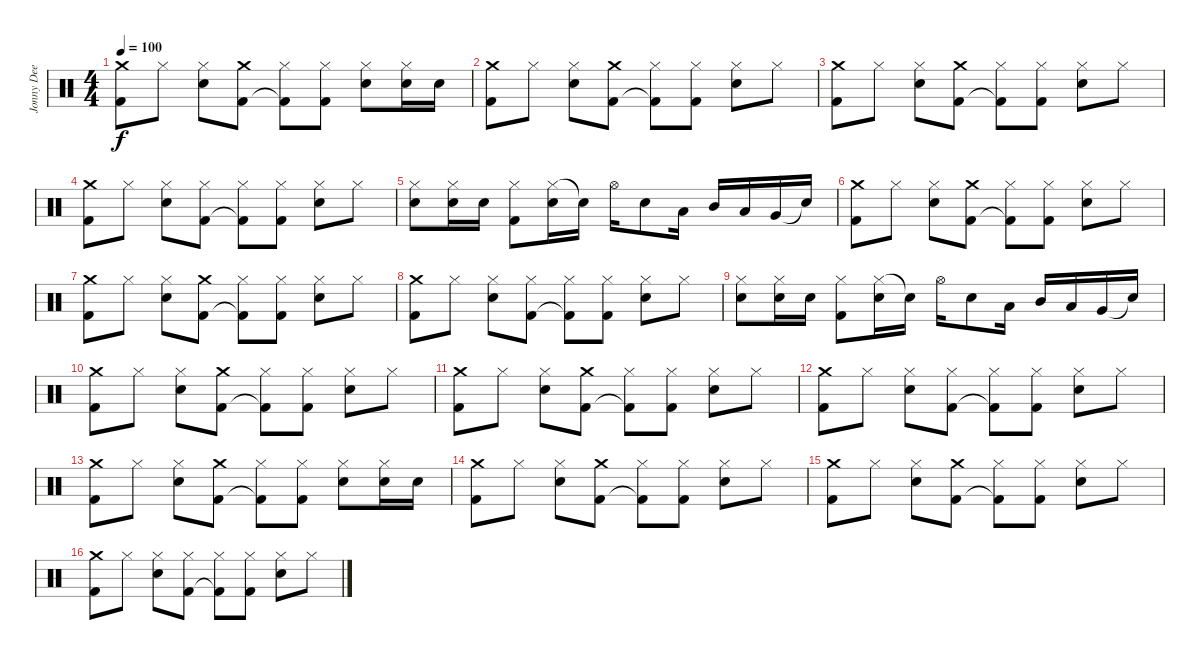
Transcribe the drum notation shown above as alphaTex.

\track ("Jonny Dee" "Jonny Dee") {instrument percussion}
\staff {score}
\articulation defaults
\ts (4 4)
\tempo 100
\clef neutral
\ks c
("Crash medium (hit)" "Kick (hit) 2").8{dy f} "Hi-Hat (closed)".8 ("Hi-Hat (closed)" "Snare (hit) 2").8 ("Crash medium (hit)" "Kick (hit) 2").8 ("Hi-Hat (closed)" "Kick (hit) 2"{t}).8 ("Hi-Hat (closed)" "Kick (hit) 2").8 ("Hi-Hat (closed)" "Snare (hit) 2").8 ("Hi-Hat (closed)" "Snare (hit) 2").16 "Snare (hit) 2".16 |
("Crash medium (hit)" "Kick (hit) 2").8 "Hi-Hat (closed)".8 ("Hi-Hat (closed)" "Snare (hit) 2").8 ("Crash medium (hit)" "Kick (hit) 2").8 ("Hi-Hat (closed)" "Kick (hit) 2"{t}).8 ("Hi-Hat (closed)" "Kick (hit) 2").8 ("Hi-Hat (closed)" "Snare (hit) 2").8 "Hi-Hat (closed)".8 |
("Crash medium (hit)" "Kick (hit) 2").8 "Hi-Hat (closed)".8 ("Hi-Hat (closed)" "Snare (hit) 2").8 ("Crash medium (hit)" "Kick (hit) 2").8 ("Hi-Hat (closed)" "Kick (hit) 2"{t}).8 ("Hi-Hat (closed)" "Kick (hit) 2").8 ("Hi-Hat (closed)" "Snare (hit) 2").8 "Hi-Hat (closed)".8 |
("Crash medium (hit)" "Kick (hit) 2").8 "Hi-Hat (closed)".8 ("Hi-Hat (closed)" "Snare (hit) 2").8 ("Hi-Hat (closed)" "Kick (hit) 2").8 ("Hi-Hat (closed)" "Kick (hit) 2"{t}).8 ("Hi-Hat (closed)" "Kick (hit) 2").8 ("Hi-Hat (closed)" "Snare (hit) 2").8 "Hi-Hat (closed)".8 |
("Hi-Hat (closed)" "Snare (hit) 2").8 ("Hi-Hat (closed)" "Snare (hit) 2").16 "Snare (hit) 2".16 ("Hi-Hat (closed)" "Kick (hit) 2").8 ("Hi-Hat (closed)" "Snare (hit) 2").16 "Snare (hit)"{t}.16 "Hi-Hat (open)".16 "Snare (hit) 2".8 "Low Tom (hit)".16 "Mid Tom (hit)".16 "Low Tom (hit)".16 "Very Low Tom (hit)".16 "Snare (hit)"{t}.16 |
("Crash medium (hit)" "Kick (hit) 2").8 "Hi-Hat (closed)".8 ("Hi-Hat (closed)" "Snare (hit) 2").8 ("Crash medium (hit)" "Kick (hit) 2").8 ("Hi-Hat (closed)" "Kick (hit) 2"{t}).8 ("Hi-Hat (closed)" "Kick (hit) 2").8 ("Hi-Hat (closed)" "Snare (hit) 2").8 "Hi-Hat (closed)".8 |
("Crash medium (hit)" "Kick (hit) 2").8 "Hi-Hat (closed)".8 ("Hi-Hat (closed)" "Snare (hit) 2").8 ("Crash medium (hit)" "Kick (hit) 2").8 ("Hi-Hat (closed)" "Kick (hit) 2"{t}).8 ("Hi-Hat (closed)" "Kick (hit) 2").8 ("Hi-Hat (closed)" "Snare (hit) 2").8 "Hi-Hat (closed)".8 |
("Crash medium (hit)" "Kick (hit) 2").8 "Hi-Hat (closed)".8 ("Hi-Hat (closed)" "Snare (hit) 2").8 ("Hi-Hat (closed)" "Kick (hit) 2").8 ("Hi-Hat (closed)" "Kick (hit) 2"{t}).8 ("Hi-Hat (closed)" "Kick (hit) 2").8 ("Hi-Hat (closed)" "Snare (hit) 2").8 "Hi-Hat (closed)".8 |
("Hi-Hat (closed)" "Snare (hit) 2").8 ("Hi-Hat (closed)" "Snare (hit) 2").16 "Snare (hit) 2".16 ("Hi-Hat (closed)" "Kick (hit) 2").8 ("Hi-Hat (closed)" "Snare (hit) 2").16 "Snare (hit)"{t}.16 "Hi-Hat (open)".16 "Snare (hit) 2".8 "Low Tom (hit)".16 "Mid Tom (hit)".16 "Low Tom (hit)".16 "Very Low Tom (hit)".16 "Snare (hit)"{t}.16 |
("Crash medium (hit)" "Kick (hit) 2").8 "Hi-Hat (closed)".8 ("Hi-Hat (closed)" "Snare (hit) 2").8 ("Crash medium (hit)" "Kick (hit) 2").8 ("Hi-Hat (closed)" "Kick (hit) 2"{t}).8 ("Hi-Hat (closed)" "Kick (hit) 2").8 ("Hi-Hat (closed)" "Snare (hit) 2").8 "Hi-Hat (closed)".8 |
("Crash medium (hit)" "Kick (hit) 2").8 "Hi-Hat (closed)".8 ("Hi-Hat (closed)" "Snare (hit) 2").8 ("Crash medium (hit)" "Kick (hit) 2").8 ("Hi-Hat (closed)" "Kick (hit) 2"{t}).8 ("Hi-Hat (closed)" "Kick (hit) 2").8 ("Hi-Hat (closed)" "Snare (hit) 2").8 "Hi-Hat (closed)".8 |
("Crash medium (hit)" "Kick (hit) 2").8 "Hi-Hat (closed)".8 ("Hi-Hat (closed)" "Snare (hit) 2").8 ("Hi-Hat (closed)" "Kick (hit) 2").8 ("Hi-Hat (closed)" "Kick (hit) 2"{t}).8 ("Hi-Hat (closed)" "Kick (hit) 2").8 ("Hi-Hat (closed)" "Snare (hit) 2").8 "Hi-Hat (closed)".8 |
("Crash medium (hit)" "Kick (hit) 2").8 "Hi-Hat (closed)".8 ("Hi-Hat (closed)" "Snare (hit) 2").8 ("Crash medium (hit)" "Kick (hit) 2").8 ("Hi-Hat (closed)" "Kick (hit) 2"{t}).8 ("Hi-Hat (closed)" "Kick (hit) 2").8 ("Hi-Hat (closed)" "Snare (hit) 2").8 ("Hi-Hat (closed)" "Snare (hit) 2").16 "Snare (hit) 2".16 |
("Crash medium (hit)" "Kick (hit) 2").8 "Hi-Hat (closed)".8 ("Hi-Hat (closed)" "Snare (hit) 2").8 ("Crash medium (hit)" "Kick (hit) 2").8 ("Hi-Hat (closed)" "Kick (hit) 2"{t}).8 ("Hi-Hat (closed)" "Kick (hit) 2").8 ("Hi-Hat (closed)" "Snare (hit) 2").8 "Hi-Hat (closed)".8 |
("Crash medium (hit)" "Kick (hit) 2").8 "Hi-Hat (closed)".8 ("Hi-Hat (closed)" "Snare (hit) 2").8 ("Crash medium (hit)" "Kick (hit) 2").8 ("Hi-Hat (closed)" "Kick (hit) 2"{t}).8 ("Hi-Hat (closed)" "Kick (hit) 2").8 ("Hi-Hat (closed)" "Snare (hit) 2").8 "Hi-Hat (closed)".8 |
("Crash medium (hit)" "Kick (hit) 2").8 "Hi-Hat (closed)".8 ("Hi-Hat (closed)" "Snare (hit) 2").8 ("Hi-Hat (closed)" "Kick (hit) 2").8 ("Hi-Hat (closed)" "Kick (hit) 2"{t}).8 ("Hi-Hat (closed)" "Kick (hit) 2").8 ("Hi-Hat (closed)" "Snare (hit) 2").8 "Hi-Hat (closed)".8
